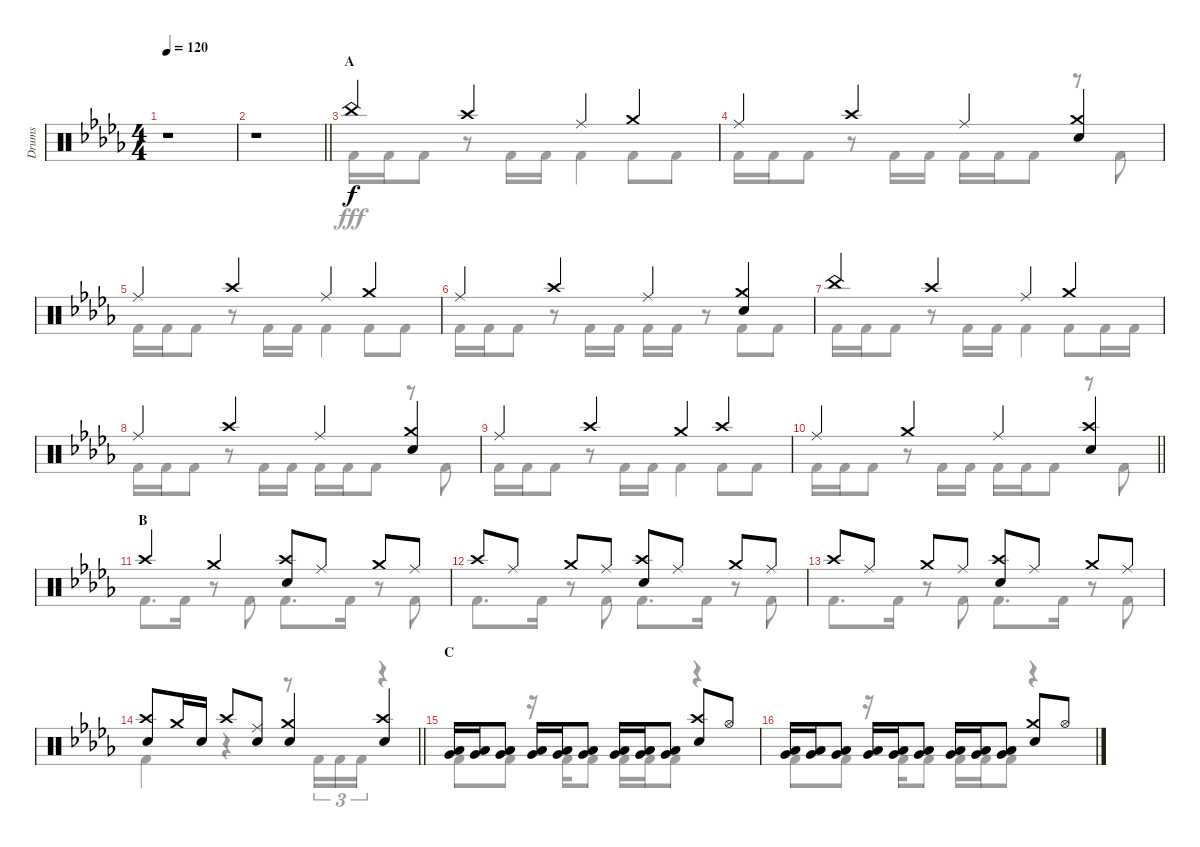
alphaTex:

\track ("Drums" "Drums") {instrument percussion}
\staff {score}
\articulation defaults
\voice
\ts (4 4)
\tempo 120
\clef neutral
\ks db
r.1{dy f} |
\barLineRight lightlight
r.1 |
\section ("" "A")
"China (hit)".4 "Crash high (hit)".4 "Ride (middle)".4 "Crash medium (hit)".4 |
"Ride (middle)".4 "Crash high (hit)".4 "Ride (middle)".4 ("Crash medium (hit)" "Snare (hit) 2").4 |
"Ride (middle)".4 "Crash high (hit)".4 "Ride (middle)".4 "Crash medium (hit)".4 |
"Ride (middle)".4 "Crash high (hit)".4 "Ride (middle)".4 ("Crash medium (hit)" "Snare (hit) 2").4 |
"China (hit)".4 "Crash high (hit)".4 "Ride (middle)".4 "Crash medium (hit)".4 |
"Ride (middle)".4 "Crash high (hit)".4 "Ride (middle)".4 ("Crash medium (hit)" "Snare (hit) 2").4 |
"Ride (middle)".4 "Crash high (hit)".4 "Crash medium (hit)".4 "Crash high (hit)".4 |
\barLineRight lightlight "Ride (middle)".4 "Crash medium (hit)".4 "Ride (middle)".4
("Crash high (hit)" "Snare (hit) 2").4 |
\section ("" "B")
"Crash high (hit)".4 "Crash medium (hit)".4 ("Crash high (hit)" "Snare (hit) 2").8 "Ride (middle)".8 "Crash medium (hit)".8 "Ride (middle)".8 |
"Crash high (hit)".8 "Ride (middle)".8 "Crash medium (hit)".8 "Ride (middle)".8 ("Crash high (hit)" "Snare (hit) 2").8 "Ride (middle)".8 "Crash medium (hit)".8 "Ride (middle)".8 |
"Crash high (hit)".8 "Ride (middle)".8 "Crash medium (hit)".8 "Ride (middle)".8 ("Crash high (hit)" "Snare (hit) 2").8 "Ride (middle)".8 "Crash medium (hit)".8 "Ride (middle)".8 |
\barLineRight lightlight
("Crash high (hit)" "Snare (hit) 2").8 "Crash medium (hit)".16 "Snare (hit) 2".16 "Crash high (hit)".8 ("Ride (middle)" "Snare (hit) 2").8 ("Crash medium (hit)" "Snare (hit) 2").4 ("Crash high (hit)" "Snare (hit) 2").4 |
\section ("" "C")
("Low Tom (hit)" "Very Low Tom (hit)").16 ("Low Tom (hit)" "Very Low Tom (hit)").16 ("Low Tom (hit)" "Very Low Tom (hit)").8 ("Low Tom (hit)" "Very Low Tom (hit)").16 ("Low Tom (hit)" "Very Low Tom (hit)").16 ("Low Tom (hit)" "Very Low Tom (hit)").8 ("Low Tom (hit)" "Very Low Tom (hit)").16 ("Low Tom (hit)" "Very Low Tom (hit)").16 ("Low Tom (hit)" "Very Low Tom (hit)").8 ("Crash high (hit)" "Snare (hit) 2").8 "Hi-Hat (open)".8 |
("Low Tom (hit)" "Very Low Tom (hit)").16 ("Low Tom (hit)" "Very Low Tom (hit)").16 ("Low Tom (hit)" "Very Low Tom (hit)").8 ("Low Tom (hit)" "Very Low Tom (hit)").16 ("Low Tom (hit)" "Very Low Tom (hit)").16 ("Low Tom (hit)" "Very Low Tom (hit)").8 ("Low Tom (hit)" "Very Low Tom (hit)").16 ("Low Tom (hit)" "Very Low Tom (hit)").16 ("Low Tom (hit)" "Very Low Tom (hit)").8 ("Crash medium (hit)" "Snare (hit) 2").8 "Hi-Hat (open)".8
\voice
\clef neutral
\ottava regular
\simile none
\ks db
r.1{dy fff} |
\barLineRight lightlight
r.1 |
"Kick (hit) 2".16 "Kick (hit) 2".16 "Kick (hit) 2".8 r.8 "Kick (hit) 2".16 "Kick (hit) 2".16 "Kick (hit) 2".4 "Kick (hit) 2".8 "Kick (hit) 2".8 |
"Kick (hit) 2".16 "Kick (hit) 2".16 "Kick (hit) 2".8 r.8 "Kick (hit) 2".16 "Kick (hit) 2".16 "Kick (hit) 2".16 "Kick (hit) 2".16 "Kick (hit) 2".8 r.8 "Kick (hit) 2".8 |
"Kick (hit) 2".16 "Kick (hit) 2".16 "Kick (hit) 2".8 r.8 "Kick (hit) 2".16 "Kick (hit) 2".16 "Kick (hit) 2".4 "Kick (hit) 2".8 "Kick (hit) 2".8 |
"Kick (hit) 2".16 "Kick (hit) 2".16 "Kick (hit) 2".8 r.8 "Kick (hit) 2".16 "Kick (hit) 2".16 "Kick (hit) 2".16 "Kick (hit) 2".16 r.8 "Kick (hit) 2".8 "Kick (hit) 2".8 |
"Kick (hit) 2".16 "Kick (hit) 2".16 "Kick (hit) 2".8 r.8 "Kick (hit) 2".16 "Kick (hit) 2".16 "Kick (hit) 2".4 "Kick (hit) 2".8 "Kick (hit) 2".16 "Kick (hit) 2".16 |
"Kick (hit) 2".16 "Kick (hit) 2".16 "Kick (hit) 2".8 r.8 "Kick (hit) 2".16 "Kick (hit) 2".16 "Kick (hit) 2".16 "Kick (hit) 2".16 "Kick (hit) 2".8 r.8 "Kick (hit) 2".8 |
"Kick (hit) 2".16 "Kick (hit) 2".16 "Kick (hit) 2".8 r.8 "Kick (hit) 2".16 "Kick (hit) 2".16 "Kick (hit) 2".4 "Kick (hit) 2".8 "Kick (hit) 2".8 |
\barLineRight lightlight "Kick (hit) 2".16 "Kick (hit) 2".16 "Kick (hit) 2".8
r.8 "Kick (hit) 2".16 "Kick (hit) 2".16 "Kick (hit) 2".16 "Kick (hit) 2".16 "Kick (hit) 2".8 r.8 "Kick (hit) 2".8 |
"Kick (hit) 2".8{d} "Kick (hit) 2".16 r.8 "Kick (hit) 2".8 "Kick (hit) 2".8{d} "Kick (hit) 2".16 r.8 "Kick (hit) 2".8 |
"Kick (hit) 2".8{d} "Kick (hit) 2".16 r.8 "Kick (hit) 2".8 "Kick (hit) 2".8{d} "Kick (hit) 2".16 r.8 "Kick (hit) 2".8 |
"Kick (hit) 2".8{d} "Kick (hit) 2".16 r.8 "Kick (hit) 2".8 "Kick (hit) 2".8{d} "Kick (hit) 2".16 r.8 "Kick (hit) 2".8 |
\barLineRight lightlight "Kick (hit) 2".4
r.4 r.8 "Kick (hit) 2".16{tu (3 2)} "Kick (hit) 2".16{tu (3 2)} "Kick (hit) 2".16{tu (3 2)} r.4 |
"Kick (hit) 2".8 "Kick (hit) 2".8 r.16 "Kick (hit) 2".16 "Kick (hit) 2".8 "Kick (hit) 2".16 "Kick (hit) 2".16 "Kick (hit) 2".8 r.4 |
"Kick (hit) 2".8 "Kick (hit) 2".8 r.16 "Kick (hit) 2".16 "Kick (hit) 2".8 "Kick (hit) 2".16 "Kick (hit) 2".16 "Kick (hit) 2".8 r.4
